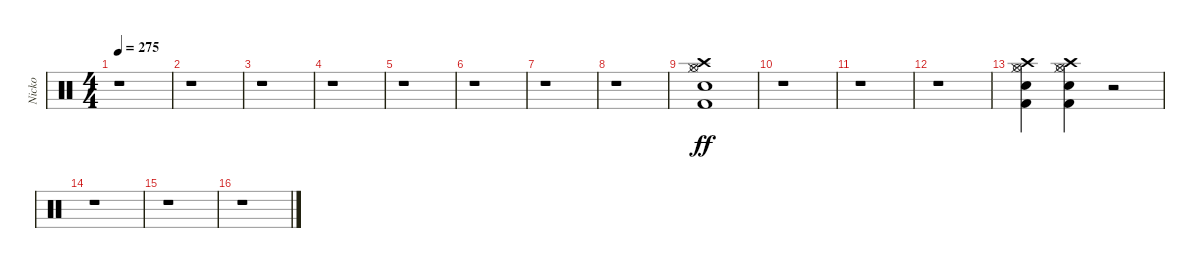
\track ("Nicko" "Nicko") {instrument percussion}
\staff {score}
\articulation defaults
\ts (4 4)
\tempo 275
\tempo 272
\tempo 275
\clef neutral
\ks c
r.1{dy ff} |
r.1 |
r.1 |
r.1 |
r.1 |
r.1 |
r.1 |
r.1 |
("Kick (hit) 2" "Snare (hit) 2" "Hi-Hat (closed)" "Hi-Hat (open)" "Crash high (hit)").1 |
r.1 |
r.1 |
r.1 |
("Kick (hit) 2" "Snare (hit) 2" "Hi-Hat (closed)" "Hi-Hat (open)" "Crash high (hit)").4 ("Kick (hit) 2" "Snare (hit) 2" "Hi-Hat (closed)" "Hi-Hat (open)" "Crash high (hit)").4 r.2 |
r.1 |
r.1 |
r.1
